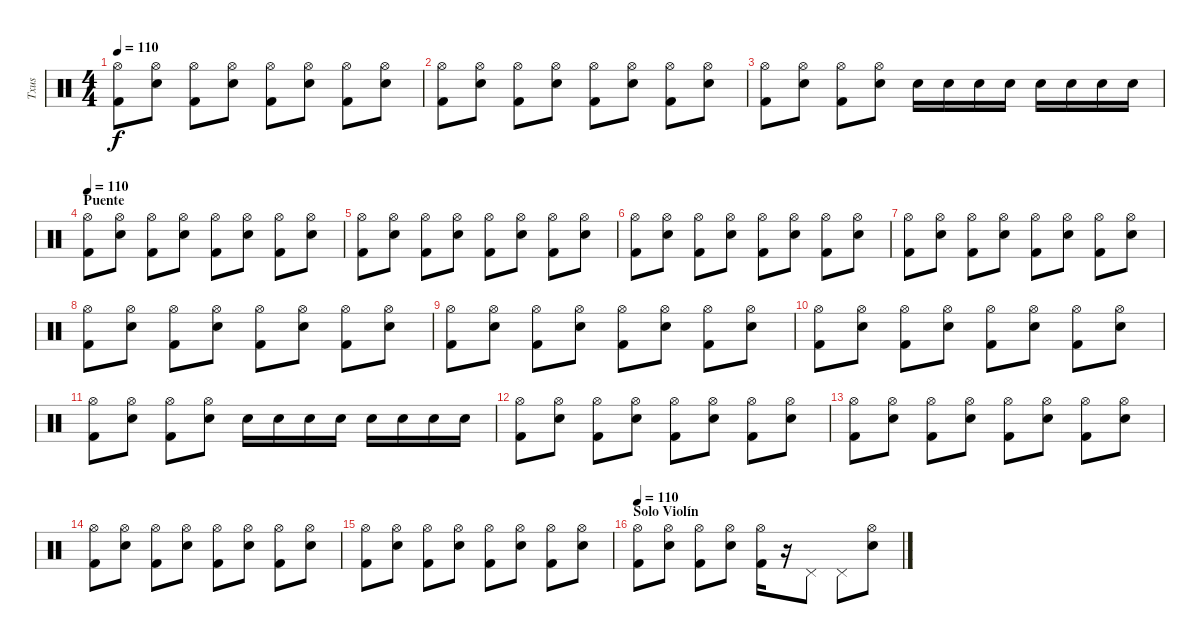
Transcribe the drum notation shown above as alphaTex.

\track ("Txus" "Txus") {instrument percussion}
\staff {score}
\articulation defaults
\ts (4 4)
\tempo 110
\clef neutral
\ks c
("Hi-Hat (open)" "Kick (hit) 2").8{dy f} ("Hi-Hat (open)" "Snare (hit) 2").8 ("Hi-Hat (open)" "Kick (hit) 2").8 ("Hi-Hat (open)" "Snare (hit) 2").8 ("Hi-Hat (open)" "Kick (hit) 2").8 ("Hi-Hat (open)" "Snare (hit) 2").8 ("Hi-Hat (open)" "Kick (hit) 2").8 ("Hi-Hat (open)" "Snare (hit) 2").8 |
("Hi-Hat (open)" "Kick (hit) 2").8 ("Hi-Hat (open)" "Snare (hit) 2").8 ("Hi-Hat (open)" "Kick (hit) 2").8 ("Hi-Hat (open)" "Snare (hit) 2").8 ("Hi-Hat (open)" "Kick (hit) 2").8 ("Hi-Hat (open)" "Snare (hit) 2").8 ("Hi-Hat (open)" "Kick (hit) 2").8 ("Hi-Hat (open)" "Snare (hit) 2").8 |
("Hi-Hat (open)" "Kick (hit) 2").8 ("Hi-Hat (open)" "Snare (hit) 2").8 ("Hi-Hat (open)" "Kick (hit) 2").8 ("Hi-Hat (open)" "Snare (hit) 2").8 "Snare (hit) 2".16 "Snare (hit) 2".16 "Snare (hit) 2".16 "Snare (hit) 2".16 "Snare (hit) 2".16 "Snare (hit) 2".16 "Snare (hit) 2".16 "Snare (hit) 2".16 |
\section ("" "Puente")
\tempo 110
("Hi-Hat (open)" "Kick (hit) 2").8 ("Hi-Hat (open)" "Snare (hit) 2").8 ("Hi-Hat (open)" "Kick (hit) 2").8 ("Hi-Hat (open)" "Snare (hit) 2").8 ("Hi-Hat (open)" "Kick (hit) 2").8 ("Hi-Hat (open)" "Snare (hit) 2").8 ("Hi-Hat (open)" "Kick (hit) 2").8 ("Hi-Hat (open)" "Snare (hit) 2").8 |
("Hi-Hat (open)" "Kick (hit) 2").8 ("Hi-Hat (open)" "Snare (hit) 2").8 ("Hi-Hat (open)" "Kick (hit) 2").8 ("Hi-Hat (open)" "Snare (hit) 2").8 ("Hi-Hat (open)" "Kick (hit) 2").8 ("Hi-Hat (open)" "Snare (hit) 2").8 ("Hi-Hat (open)" "Kick (hit) 2").8 ("Hi-Hat (open)" "Snare (hit) 2").8 |
("Hi-Hat (open)" "Kick (hit) 2").8 ("Hi-Hat (open)" "Snare (hit) 2").8 ("Hi-Hat (open)" "Kick (hit) 2").8 ("Hi-Hat (open)" "Snare (hit) 2").8 ("Hi-Hat (open)" "Kick (hit) 2").8 ("Hi-Hat (open)" "Snare (hit) 2").8 ("Hi-Hat (open)" "Kick (hit) 2").8 ("Hi-Hat (open)" "Snare (hit) 2").8 |
("Hi-Hat (open)" "Kick (hit) 2").8 ("Hi-Hat (open)" "Snare (hit) 2").8 ("Hi-Hat (open)" "Kick (hit) 2").8 ("Hi-Hat (open)" "Snare (hit) 2").8 ("Hi-Hat (open)" "Kick (hit) 2").8 ("Hi-Hat (open)" "Snare (hit) 2").8 ("Hi-Hat (open)" "Kick (hit) 2").8 ("Hi-Hat (open)" "Snare (hit) 2").8 |
("Hi-Hat (open)" "Kick (hit) 2").8 ("Hi-Hat (open)" "Snare (hit) 2").8 ("Hi-Hat (open)" "Kick (hit) 2").8 ("Hi-Hat (open)" "Snare (hit) 2").8 ("Hi-Hat (open)" "Kick (hit) 2").8 ("Hi-Hat (open)" "Snare (hit) 2").8 ("Hi-Hat (open)" "Kick (hit) 2").8 ("Hi-Hat (open)" "Snare (hit) 2").8 |
("Hi-Hat (open)" "Kick (hit) 2").8 ("Hi-Hat (open)" "Snare (hit) 2").8 ("Hi-Hat (open)" "Kick (hit) 2").8 ("Hi-Hat (open)" "Snare (hit) 2").8 ("Hi-Hat (open)" "Kick (hit) 2").8 ("Hi-Hat (open)" "Snare (hit) 2").8 ("Hi-Hat (open)" "Kick (hit) 2").8 ("Hi-Hat (open)" "Snare (hit) 2").8 |
("Hi-Hat (open)" "Kick (hit) 2").8 ("Hi-Hat (open)" "Snare (hit) 2").8 ("Hi-Hat (open)" "Kick (hit) 2").8 ("Hi-Hat (open)" "Snare (hit) 2").8 ("Hi-Hat (open)" "Kick (hit) 2").8 ("Hi-Hat (open)" "Snare (hit) 2").8 ("Hi-Hat (open)" "Kick (hit) 2").8 ("Hi-Hat (open)" "Snare (hit) 2").8 |
("Hi-Hat (open)" "Kick (hit) 2").8 ("Hi-Hat (open)" "Snare (hit) 2").8 ("Hi-Hat (open)" "Kick (hit) 2").8 ("Hi-Hat (open)" "Snare (hit) 2").8 "Snare (hit) 2".16 "Snare (hit) 2".16 "Snare (hit) 2".16 "Snare (hit) 2".16 "Snare (hit) 2".16 "Snare (hit) 2".16 "Snare (hit) 2".16 "Snare (hit) 2".16 |
("Hi-Hat (open)" "Kick (hit) 2").8 ("Hi-Hat (open)" "Snare (hit) 2").8 ("Hi-Hat (open)" "Kick (hit) 2").8 ("Hi-Hat (open)" "Snare (hit) 2").8 ("Hi-Hat (open)" "Kick (hit) 2").8 ("Hi-Hat (open)" "Snare (hit) 2").8 ("Hi-Hat (open)" "Kick (hit) 2").8 ("Hi-Hat (open)" "Snare (hit) 2").8 |
("Hi-Hat (open)" "Kick (hit) 2").8 ("Hi-Hat (open)" "Snare (hit) 2").8 ("Hi-Hat (open)" "Kick (hit) 2").8 ("Hi-Hat (open)" "Snare (hit) 2").8 ("Hi-Hat (open)" "Kick (hit) 2").8 ("Hi-Hat (open)" "Snare (hit) 2").8 ("Hi-Hat (open)" "Kick (hit) 2").8 ("Hi-Hat (open)" "Snare (hit) 2").8 |
("Hi-Hat (open)" "Kick (hit) 2").8 ("Hi-Hat (open)" "Snare (hit) 2").8 ("Hi-Hat (open)" "Kick (hit) 2").8 ("Hi-Hat (open)" "Snare (hit) 2").8 ("Hi-Hat (open)" "Kick (hit) 2").8 ("Hi-Hat (open)" "Snare (hit) 2").8 ("Hi-Hat (open)" "Kick (hit) 2").8 ("Hi-Hat (open)" "Snare (hit) 2").8 |
("Hi-Hat (open)" "Kick (hit) 2").8 ("Hi-Hat (open)" "Snare (hit) 2").8 ("Hi-Hat (open)" "Kick (hit) 2").8 ("Hi-Hat (open)" "Snare (hit) 2").8 ("Hi-Hat (open)" "Kick (hit) 2").8 ("Hi-Hat (open)" "Snare (hit) 2").8 ("Hi-Hat (open)" "Kick (hit) 2").8 ("Hi-Hat (open)" "Snare (hit) 2").8 |
\section ("" "Solo Violín")
\tempo 110
("Hi-Hat (open)" "Kick (hit) 2").8 ("Hi-Hat (open)" "Snare (hit) 2").8 ("Hi-Hat (open)" "Kick (hit) 2").8 ("Hi-Hat (open)" "Snare (hit) 2").8 ("Hi-Hat (open)" "Kick (hit) 2").16 r.16 "Pedal Hi-Hat (hit)".8 "Pedal Hi-Hat (hit)".8 ("Hi-Hat (open)" "Snare (hit) 2").8
